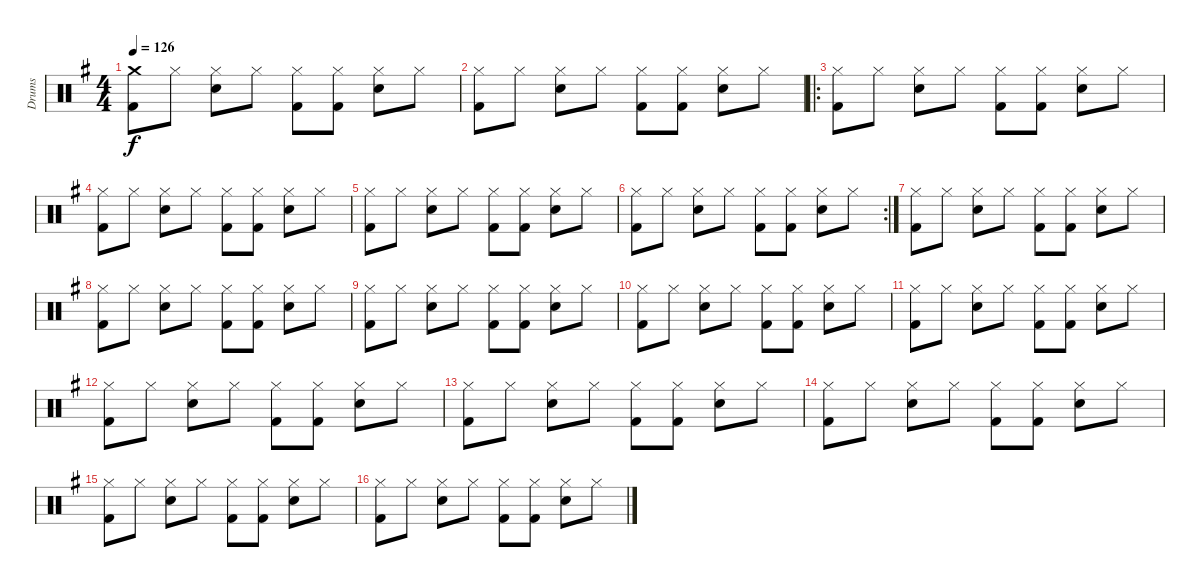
\track ("Drums" "Drums") {instrument percussion}
\staff {score}
\articulation defaults
\ts (4 4)
\tempo 126
\clef neutral
\ks g
("Crash medium (hit)" "Kick (hit) 2").8{dy f} "Hi-Hat (closed)".8 ("Hi-Hat (closed)" "Snare (hit) 2").8 "Hi-Hat (closed)".8 ("Hi-Hat (closed)" "Kick (hit) 2").8 ("Hi-Hat (closed)" "Kick (hit) 2").8 ("Hi-Hat (closed)" "Snare (hit) 2").8 "Hi-Hat (closed)".8 |
("Hi-Hat (closed)" "Kick (hit) 2").8 "Hi-Hat (closed)".8 ("Hi-Hat (closed)" "Snare (hit) 2").8 "Hi-Hat (closed)".8 ("Hi-Hat (closed)" "Kick (hit) 2").8 ("Hi-Hat (closed)" "Kick (hit) 2").8 ("Hi-Hat (closed)" "Snare (hit) 2").8 "Hi-Hat (closed)".8 |
\ro
("Hi-Hat (closed)" "Kick (hit) 2").8 "Hi-Hat (closed)".8 ("Hi-Hat (closed)" "Snare (hit) 2").8 "Hi-Hat (closed)".8 ("Hi-Hat (closed)" "Kick (hit) 2").8 ("Hi-Hat (closed)" "Kick (hit) 2").8 ("Hi-Hat (closed)" "Snare (hit) 2").8 "Hi-Hat (closed)".8 |
("Hi-Hat (closed)" "Kick (hit) 2").8 "Hi-Hat (closed)".8 ("Hi-Hat (closed)" "Snare (hit) 2").8 "Hi-Hat (closed)".8 ("Hi-Hat (closed)" "Kick (hit) 2").8 ("Hi-Hat (closed)" "Kick (hit) 2").8 ("Hi-Hat (closed)" "Snare (hit) 2").8 "Hi-Hat (closed)".8 |
("Hi-Hat (closed)" "Kick (hit) 2").8 "Hi-Hat (closed)".8 ("Hi-Hat (closed)" "Snare (hit) 2").8 "Hi-Hat (closed)".8 ("Hi-Hat (closed)" "Kick (hit) 2").8 ("Hi-Hat (closed)" "Kick (hit) 2").8 ("Hi-Hat (closed)" "Snare (hit) 2").8 "Hi-Hat (closed)".8 |
\rc 2
("Hi-Hat (closed)" "Kick (hit) 2").8 "Hi-Hat (closed)".8 ("Hi-Hat (closed)" "Snare (hit) 2").8 "Hi-Hat (closed)".8 ("Hi-Hat (closed)" "Kick (hit) 2").8 ("Hi-Hat (closed)" "Kick (hit) 2").8 ("Hi-Hat (closed)" "Snare (hit) 2").8 "Hi-Hat (closed)".8 |
("Hi-Hat (closed)" "Kick (hit) 2").8 "Hi-Hat (closed)".8 ("Hi-Hat (closed)" "Snare (hit) 2").8 "Hi-Hat (closed)".8 ("Hi-Hat (closed)" "Kick (hit) 2").8 ("Hi-Hat (closed)" "Kick (hit) 2").8 ("Hi-Hat (closed)" "Snare (hit) 2").8 "Hi-Hat (closed)".8 |
("Hi-Hat (closed)" "Kick (hit) 2").8 "Hi-Hat (closed)".8 ("Hi-Hat (closed)" "Snare (hit) 2").8 "Hi-Hat (closed)".8 ("Hi-Hat (closed)" "Kick (hit) 2").8 ("Hi-Hat (closed)" "Kick (hit) 2").8 ("Hi-Hat (closed)" "Snare (hit) 2").8 "Hi-Hat (closed)".8 |
("Hi-Hat (closed)" "Kick (hit) 2").8 "Hi-Hat (closed)".8 ("Hi-Hat (closed)" "Snare (hit) 2").8 "Hi-Hat (closed)".8 ("Hi-Hat (closed)" "Kick (hit) 2").8 ("Hi-Hat (closed)" "Kick (hit) 2").8 ("Hi-Hat (closed)" "Snare (hit) 2").8 "Hi-Hat (closed)".8 |
("Hi-Hat (closed)" "Kick (hit) 2").8 "Hi-Hat (closed)".8 ("Hi-Hat (closed)" "Snare (hit) 2").8 "Hi-Hat (closed)".8 ("Hi-Hat (closed)" "Kick (hit) 2").8 ("Hi-Hat (closed)" "Kick (hit) 2").8 ("Hi-Hat (closed)" "Snare (hit) 2").8 "Hi-Hat (closed)".8 |
("Hi-Hat (closed)" "Kick (hit) 2").8 "Hi-Hat (closed)".8 ("Hi-Hat (closed)" "Snare (hit) 2").8 "Hi-Hat (closed)".8 ("Hi-Hat (closed)" "Kick (hit) 2").8 ("Hi-Hat (closed)" "Kick (hit) 2").8 ("Hi-Hat (closed)" "Snare (hit) 2").8 "Hi-Hat (closed)".8 |
("Hi-Hat (closed)" "Kick (hit) 2").8 "Hi-Hat (closed)".8 ("Hi-Hat (closed)" "Snare (hit) 2").8 "Hi-Hat (closed)".8 ("Hi-Hat (closed)" "Kick (hit) 2").8 ("Hi-Hat (closed)" "Kick (hit) 2").8 ("Hi-Hat (closed)" "Snare (hit) 2").8 "Hi-Hat (closed)".8 |
("Hi-Hat (closed)" "Kick (hit) 2").8 "Hi-Hat (closed)".8 ("Hi-Hat (closed)" "Snare (hit) 2").8 "Hi-Hat (closed)".8 ("Hi-Hat (closed)" "Kick (hit) 2").8 ("Hi-Hat (closed)" "Kick (hit) 2").8 ("Hi-Hat (closed)" "Snare (hit) 2").8 "Hi-Hat (closed)".8 |
("Hi-Hat (closed)" "Kick (hit) 2").8 "Hi-Hat (closed)".8 ("Hi-Hat (closed)" "Snare (hit) 2").8 "Hi-Hat (closed)".8 ("Hi-Hat (closed)" "Kick (hit) 2").8 ("Hi-Hat (closed)" "Kick (hit) 2").8 ("Hi-Hat (closed)" "Snare (hit) 2").8 "Hi-Hat (closed)".8 |
("Hi-Hat (closed)" "Kick (hit) 2").8 "Hi-Hat (closed)".8 ("Hi-Hat (closed)" "Snare (hit) 2").8 "Hi-Hat (closed)".8 ("Hi-Hat (closed)" "Kick (hit) 2").8 ("Hi-Hat (closed)" "Kick (hit) 2").8 ("Hi-Hat (closed)" "Snare (hit) 2").8 "Hi-Hat (closed)".8 |
("Hi-Hat (closed)" "Kick (hit) 2").8 "Hi-Hat (closed)".8 ("Hi-Hat (closed)" "Snare (hit) 2").8 "Hi-Hat (closed)".8 ("Hi-Hat (closed)" "Kick (hit) 2").8 ("Hi-Hat (closed)" "Kick (hit) 2").8 ("Hi-Hat (closed)" "Snare (hit) 2").8 "Hi-Hat (closed)".8
